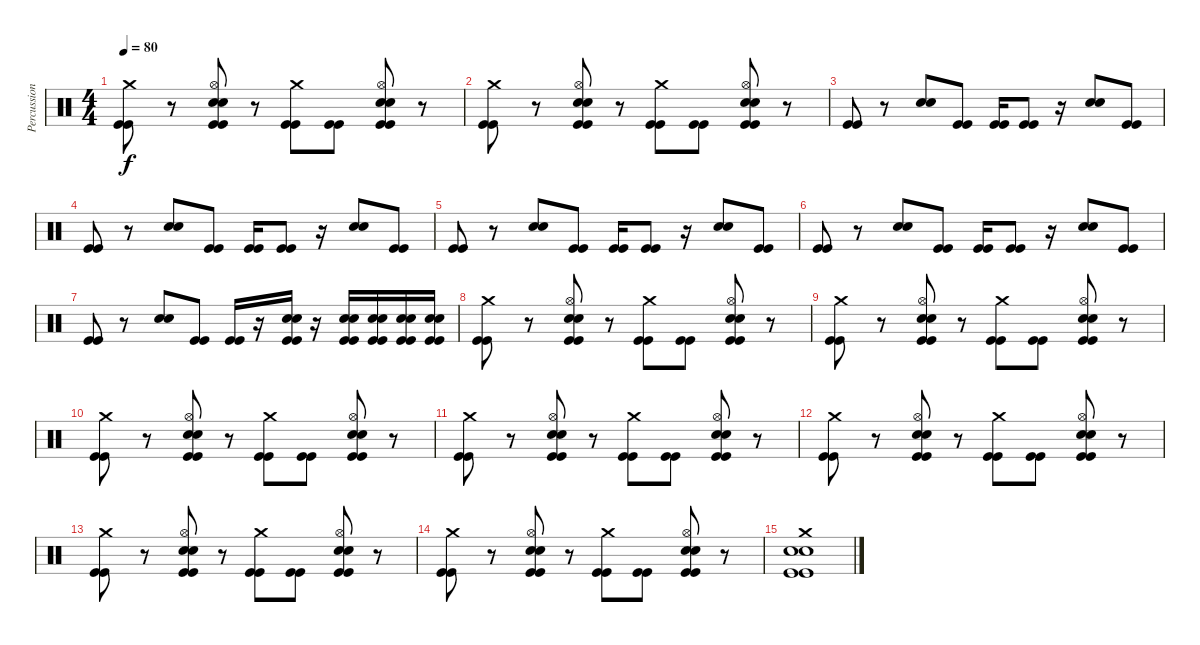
\track ("Percussion" "Percussion") {instrument percussion}
\staff {score}
\articulation defaults
\ts (4 4)
\tempo 80
\clef neutral
\ks c
("Crash medium (hit)" "Kick (hit)" "Kick (hit)").8{dy f} r.8 ("Hi-Hat (open)" "Kick (hit)" "Kick (hit)" "Electric Snare (hit)" "Electric Snare (hit)").8 r.8 ("Crash medium (hit)" "Kick (hit)" "Kick (hit)").8 ("Kick (hit)" "Kick (hit)").8 ("Hi-Hat (open)" "Kick (hit)" "Kick (hit)" "Electric Snare (hit)" "Electric Snare (hit)").8 r.8 |
("Crash medium (hit)" "Kick (hit)" "Kick (hit)").8 r.8 ("Hi-Hat (open)" "Kick (hit)" "Kick (hit)" "Electric Snare (hit)" "Electric Snare (hit)").8 r.8 ("Crash medium (hit)" "Kick (hit)" "Kick (hit)").8 ("Kick (hit)" "Kick (hit)").8 ("Hi-Hat (open)" "Kick (hit)" "Kick (hit)" "Electric Snare (hit)" "Electric Snare (hit)").8 r.8 |
("Kick (hit)" "Kick (hit)").8 r.8 ("Hand Clap (hit)" "Hand Clap (hit)").8 ("Kick (hit)" "Kick (hit)").8 ("Kick (hit)" "Kick (hit)").16 ("Kick (hit)" "Kick (hit)").8 r.16 ("Hand Clap (hit)" "Hand Clap (hit)").8 ("Kick (hit)" "Kick (hit)").8 |
("Kick (hit)" "Kick (hit)").8 r.8 ("Hand Clap (hit)" "Hand Clap (hit)").8 ("Kick (hit)" "Kick (hit)").8 ("Kick (hit)" "Kick (hit)").16 ("Kick (hit)" "Kick (hit)").8 r.16 ("Hand Clap (hit)" "Hand Clap (hit)").8 ("Kick (hit)" "Kick (hit)").8 |
("Kick (hit)" "Kick (hit)").8 r.8 ("Hand Clap (hit)" "Hand Clap (hit)").8 ("Kick (hit)" "Kick (hit)").8 ("Kick (hit)" "Kick (hit)").16 ("Kick (hit)" "Kick (hit)").8 r.16 ("Hand Clap (hit)" "Hand Clap (hit)").8 ("Kick (hit)" "Kick (hit)").8 |
("Kick (hit)" "Kick (hit)").8 r.8 ("Hand Clap (hit)" "Hand Clap (hit)").8 ("Kick (hit)" "Kick (hit)").8 ("Kick (hit)" "Kick (hit)").16 ("Kick (hit)" "Kick (hit)").8 r.16 ("Hand Clap (hit)" "Hand Clap (hit)").8 ("Kick (hit)" "Kick (hit)").8 |
("Kick (hit)" "Kick (hit)").8 r.8 ("Hand Clap (hit)" "Hand Clap (hit)").8 ("Kick (hit)" "Kick (hit)").8 ("Kick (hit)" "Kick (hit)").16 r.16 ("Kick (hit)" "Kick (hit)" "Electric Snare (hit)" "Electric Snare (hit)").16 r.16 ("Kick (hit)" "Kick (hit)" "Electric Snare (hit)" "Electric Snare (hit)").16 ("Kick (hit)" "Kick (hit)" "Electric Snare (hit)" "Electric Snare (hit)").16 ("Kick (hit)" "Kick (hit)" "Electric Snare (hit)" "Electric Snare (hit)").16 ("Kick (hit)" "Kick (hit)" "Electric Snare (hit)" "Electric Snare (hit)").16 |
("Crash medium (hit)" "Kick (hit)" "Kick (hit)").8 r.8 ("Hi-Hat (open)" "Kick (hit)" "Kick (hit)" "Electric Snare (hit)" "Electric Snare (hit)").8 r.8 ("Crash medium (hit)" "Kick (hit)" "Kick (hit)").8 ("Kick (hit)" "Kick (hit)").8 ("Hi-Hat (open)" "Kick (hit)" "Kick (hit)" "Electric Snare (hit)" "Electric Snare (hit)").8 r.8 |
("Crash medium (hit)" "Kick (hit)" "Kick (hit)").8 r.8 ("Hi-Hat (open)" "Kick (hit)" "Kick (hit)" "Electric Snare (hit)" "Electric Snare (hit)").8 r.8 ("Crash medium (hit)" "Kick (hit)" "Kick (hit)").8 ("Kick (hit)" "Kick (hit)").8 ("Hi-Hat (open)" "Kick (hit)" "Kick (hit)" "Electric Snare (hit)" "Electric Snare (hit)").8 r.8 |
("Crash medium (hit)" "Kick (hit)" "Kick (hit)").8 r.8 ("Hi-Hat (open)" "Kick (hit)" "Kick (hit)" "Electric Snare (hit)" "Electric Snare (hit)").8 r.8 ("Crash medium (hit)" "Kick (hit)" "Kick (hit)").8 ("Kick (hit)" "Kick (hit)").8 ("Hi-Hat (open)" "Kick (hit)" "Kick (hit)" "Electric Snare (hit)" "Electric Snare (hit)").8 r.8 |
("Crash medium (hit)" "Kick (hit)" "Kick (hit)").8 r.8 ("Hi-Hat (open)" "Kick (hit)" "Kick (hit)" "Electric Snare (hit)" "Electric Snare (hit)").8 r.8 ("Crash medium (hit)" "Kick (hit)" "Kick (hit)").8 ("Kick (hit)" "Kick (hit)").8 ("Hi-Hat (open)" "Kick (hit)" "Kick (hit)" "Electric Snare (hit)" "Electric Snare (hit)").8 r.8 |
("Crash medium (hit)" "Kick (hit)" "Kick (hit)").8 r.8 ("Hi-Hat (open)" "Kick (hit)" "Kick (hit)" "Electric Snare (hit)" "Electric Snare (hit)").8 r.8 ("Crash medium (hit)" "Kick (hit)" "Kick (hit)").8 ("Kick (hit)" "Kick (hit)").8 ("Hi-Hat (open)" "Kick (hit)" "Kick (hit)" "Electric Snare (hit)" "Electric Snare (hit)").8 r.8 |
("Crash medium (hit)" "Kick (hit)" "Kick (hit)").8 r.8 ("Hi-Hat (open)" "Kick (hit)" "Kick (hit)" "Electric Snare (hit)" "Electric Snare (hit)").8 r.8 ("Crash medium (hit)" "Kick (hit)" "Kick (hit)").8 ("Kick (hit)" "Kick (hit)").8 ("Hi-Hat (open)" "Kick (hit)" "Kick (hit)" "Electric Snare (hit)" "Electric Snare (hit)").8 r.8 |
("Crash medium (hit)" "Kick (hit)" "Kick (hit)").8 r.8 ("Hi-Hat (open)" "Kick (hit)" "Kick (hit)" "Electric Snare (hit)" "Electric Snare (hit)").8 r.8 ("Crash medium (hit)" "Kick (hit)" "Kick (hit)").8 ("Kick (hit)" "Kick (hit)").8 ("Hi-Hat (open)" "Kick (hit)" "Kick (hit)" "Electric Snare (hit)" "Electric Snare (hit)").8 r.8 |
("Crash medium (hit)" "Kick (hit)" "Kick (hit)" "Electric Snare (hit)" "Electric Snare (hit)").1
